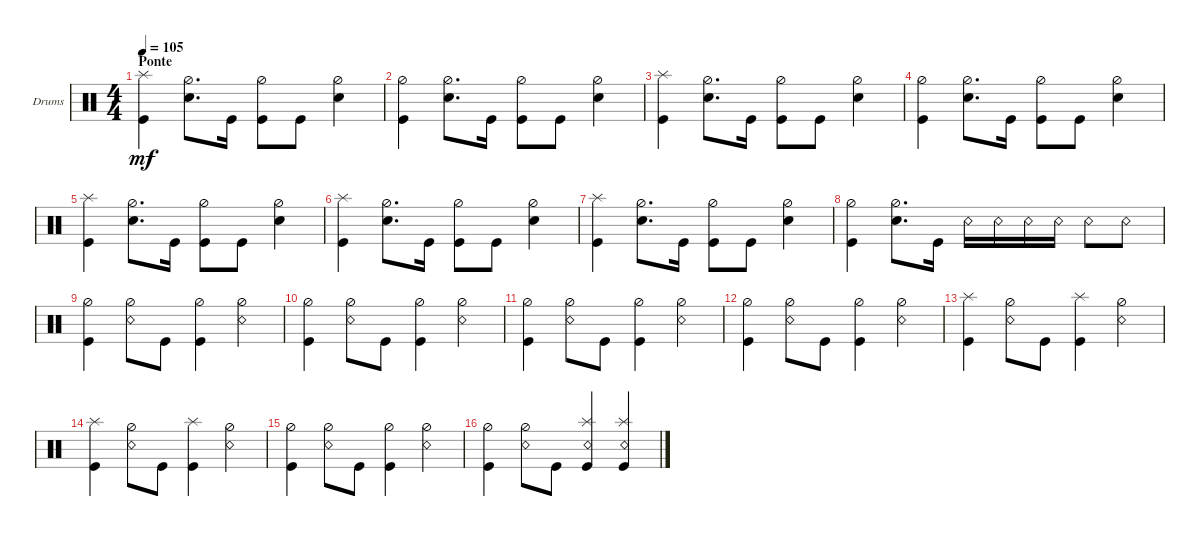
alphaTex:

\defaultSystemsLayout 4
\bracketExtendMode groupsimilarinstruments
\firstSystemTrackNameOrientation horizontal
\otherSystemsTrackNameOrientation horizontal
\track ("Drumkit" "Drums") {instrument percussion}
\staff {score}
\articulation defaults
\ts (4 4)
\section ("" "Ponte")
\tempo 105
\clef neutral
\ks c
("Kick (hit)" "Splash (hit)").4{dy mf} ("Hi-Hat (half)" "Snare (hit) 2").8{d} "Kick (hit)".16 ("Kick (hit)" "Hi-Hat (half)").8 "Kick (hit)".8 ("Snare (hit) 2" "Hi-Hat (half)").4 |
("Kick (hit)" "Hi-Hat (half)").4 ("Hi-Hat (half)" "Snare (hit) 2").8{d} "Kick (hit)".16 ("Kick (hit)" "Hi-Hat (half)").8 "Kick (hit)".8 ("Snare (hit) 2" "Hi-Hat (half)").4 |
("Kick (hit)" "Splash (hit)").4 ("Hi-Hat (half)" "Snare (hit) 2").8{d} "Kick (hit)".16 ("Kick (hit)" "Hi-Hat (half)").8 "Kick (hit)".8 ("Snare (hit) 2" "Hi-Hat (half)").4 |
("Kick (hit)" "Hi-Hat (half)").4 ("Hi-Hat (half)" "Snare (hit) 2").8{d} "Kick (hit)".16 ("Kick (hit)" "Hi-Hat (half)").8 "Kick (hit)".8 ("Snare (hit) 2" "Hi-Hat (half)").4 |
("Kick (hit)" "Splash (hit)").4 ("Hi-Hat (half)" "Snare (hit) 2").8{d} "Kick (hit)".16 ("Kick (hit)" "Hi-Hat (half)").8 "Kick (hit)".8 ("Snare (hit) 2" "Hi-Hat (half)").4 |
("Kick (hit)" "Splash (hit)").4 ("Hi-Hat (half)" "Snare (hit) 2").8{d} "Kick (hit)".16 ("Kick (hit)" "Hi-Hat (half)").8 "Kick (hit)".8 ("Snare (hit) 2" "Hi-Hat (half)").4 |
("Kick (hit)" "Splash (hit)").4 ("Hi-Hat (half)" "Snare (hit) 2").8{d} "Kick (hit)".16 ("Kick (hit)" "Hi-Hat (half)").8 "Kick (hit)".8 ("Snare (hit) 2" "Hi-Hat (half)").4 |
("Kick (hit)" "Hi-Hat (half)").4 ("Hi-Hat (half)" "Snare (hit) 2").8{d} "Kick (hit)".16 "Snare (rim shot)".16 "Snare (rim shot)".16 "Snare (rim shot)".16 "Snare (rim shot)".16 "Snare (rim shot)".8 "Snare (rim shot)".8 |
("Kick (hit)" "Hi-Hat (half)").4 ("Snare (rim shot)" "Hi-Hat (half)").8 "Kick (hit)".8 ("Kick (hit)" "Hi-Hat (half)").4 ("Snare (rim shot)" "Hi-Hat (half)").4 |
("Kick (hit)" "Hi-Hat (half)").4 ("Snare (rim shot)" "Hi-Hat (half)").8 "Kick (hit)".8 ("Kick (hit)" "Hi-Hat (half)").4 ("Snare (rim shot)" "Hi-Hat (half)").4 |
("Kick (hit)" "Hi-Hat (half)").4 ("Snare (rim shot)" "Hi-Hat (half)").8 "Kick (hit)".8 ("Kick (hit)" "Hi-Hat (half)").4 ("Snare (rim shot)" "Hi-Hat (half)").4 |
("Kick (hit)" "Hi-Hat (half)").4 ("Snare (rim shot)" "Hi-Hat (half)").8 "Kick (hit)".8 ("Kick (hit)" "Hi-Hat (half)").4 ("Snare (rim shot)" "Hi-Hat (half)").4 |
("Kick (hit)" "Splash (hit)").4 ("Snare (rim shot)" "Hi-Hat (half)").8 "Kick (hit)".8 ("Kick (hit)" "Splash (hit)").4 ("Snare (rim shot)" "Hi-Hat (half)").4 |
("Kick (hit)" "Splash (hit)").4 ("Snare (rim shot)" "Hi-Hat (half)").8 "Kick (hit)".8 ("Kick (hit)" "Splash (hit)").4 ("Snare (rim shot)" "Hi-Hat (half)").4 |
("Kick (hit)" "Hi-Hat (half)").4 ("Snare (rim shot)" "Hi-Hat (half)").8 "Kick (hit)".8 ("Kick (hit)" "Hi-Hat (half)").4 ("Snare (rim shot)" "Hi-Hat (half)").4 |
("Kick (hit)" "Hi-Hat (half)").4 ("Snare (rim shot)" "Hi-Hat (half)").8 "Kick (hit)".8 ("Kick (hit)" "Splash (hit)" "Snare (rim shot)").4 ("Snare (rim shot)" "Splash (hit)" "Kick (hit)").4
